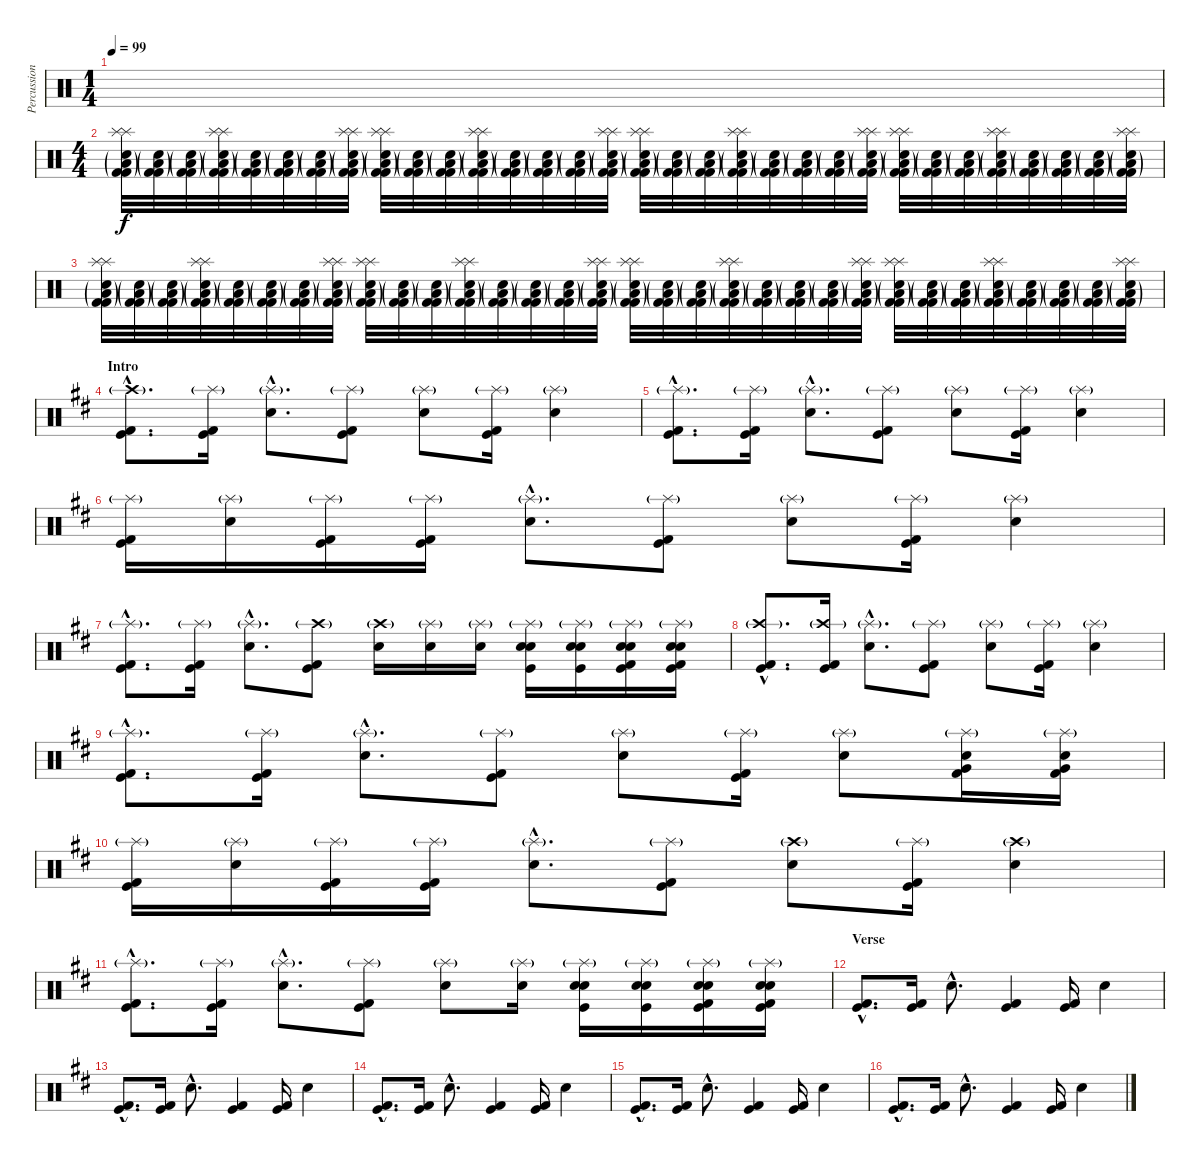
\track ("Percussion" "Percussion") {instrument percussion}
\staff {score}
\articulation defaults
\ts (1 4)
\tempo 99
\clef neutral
\ks c
|
\ts (4 4)
("Splash (hit)" "Splash (hit)" "Low Tom (hit)"{g} "Kick (hit) 2"{g} "Kick (hit) 2"{g} "Electric Snare (hit)"{g}).32{volume 10} ("Low Tom (hit)"{g} "Kick (hit) 2"{g} "Kick (hit) 2"{g} "Electric Snare (hit)"{g}).32 ("Low Tom (hit)"{g} "Kick (hit) 2"{g} "Kick (hit) 2"{g} "Electric Snare (hit)"{g}).32 ("Splash (hit)" "Splash (hit)" "Low Tom (hit)"{g} "Kick (hit) 2"{g} "Kick (hit) 2"{g} "Electric Snare (hit)"{g}).32 ("Low Tom (hit)"{g} "Kick (hit) 2"{g} "Kick (hit) 2"{g} "Electric Snare (hit)"{g}).32 ("Low Tom (hit)"{g} "Kick (hit) 2"{g} "Kick (hit) 2"{g} "Electric Snare (hit)"{g}).32 ("Low Tom (hit)"{g} "Kick (hit) 2"{g} "Kick (hit) 2"{g} "Electric Snare (hit)"{g}).32 ("Splash (hit)" "Splash (hit)" "Low Tom (hit)"{g} "Kick (hit) 2"{g} "Kick (hit) 2"{g} "Electric Snare (hit)"{g}).32 ("Splash (hit)" "Splash (hit)" "Low Tom (hit)"{g} "Kick (hit) 2"{g} "Kick (hit) 2"{g} "Electric Snare (hit)"{g}).32 ("Low Tom (hit)"{g} "Kick (hit) 2"{g} "Kick (hit) 2"{g} "Electric Snare (hit)"{g}).32 ("Low Tom (hit)"{g} "Kick (hit) 2"{g} "Kick (hit) 2"{g} "Electric Snare (hit)"{g}).32 ("Splash (hit)" "Splash (hit)" "Low Tom (hit)"{g} "Kick (hit) 2"{g} "Kick (hit) 2"{g} "Electric Snare (hit)"{g}).32 ("Low Tom (hit)"{g} "Kick (hit) 2"{g} "Kick (hit) 2"{g} "Electric Snare (hit)"{g}).32 ("Low Tom (hit)"{g} "Kick (hit) 2"{g} "Kick (hit) 2"{g} "Electric Snare (hit)"{g}).32 ("Low Tom (hit)"{g} "Kick (hit) 2"{g} "Kick (hit) 2"{g} "Electric Snare (hit)"{g}).32 ("Splash (hit)" "Splash (hit)" "Low Tom (hit)"{g} "Kick (hit) 2"{g} "Kick (hit) 2"{g} "Electric Snare (hit)"{g}).32 ("Splash (hit)" "Splash (hit)" "Low Tom (hit)"{g} "Kick (hit) 2"{g} "Kick (hit) 2"{g} "Electric Snare (hit)"{g}).32 ("Low Tom (hit)"{g} "Kick (hit) 2"{g} "Kick (hit) 2"{g} "Electric Snare (hit)"{g}).32 ("Low Tom (hit)"{g} "Kick (hit) 2"{g} "Kick (hit) 2"{g} "Electric Snare (hit)"{g}).32 ("Splash (hit)" "Splash (hit)" "Low Tom (hit)"{g} "Kick (hit) 2"{g} "Kick (hit) 2"{g} "Electric Snare (hit)"{g}).32 ("Low Tom (hit)"{g} "Kick (hit) 2"{g} "Kick (hit) 2"{g} "Electric Snare (hit)"{g}).32 ("Low Tom (hit)"{g} "Kick (hit) 2"{g} "Kick (hit) 2"{g} "Electric Snare (hit)"{g}).32 ("Low Tom (hit)"{g} "Kick (hit) 2"{g} "Kick (hit) 2"{g} "Electric Snare (hit)"{g}).32 ("Splash (hit)" "Splash (hit)" "Low Tom (hit)"{g} "Kick (hit) 2"{g} "Kick (hit) 2"{g} "Electric Snare (hit)"{g}).32 ("Splash (hit)" "Splash (hit)" "Low Tom (hit)"{g} "Kick (hit) 2"{g} "Kick (hit) 2"{g} "Electric Snare (hit)"{g}).32 ("Low Tom (hit)"{g} "Kick (hit) 2"{g} "Kick (hit) 2"{g} "Electric Snare (hit)"{g}).32 ("Low Tom (hit)"{g} "Kick (hit) 2"{g} "Kick (hit) 2"{g} "Electric Snare (hit)"{g}).32 ("Splash (hit)" "Splash (hit)" "Low Tom (hit)"{g} "Kick (hit) 2"{g} "Kick (hit) 2"{g} "Electric Snare (hit)"{g}).32 ("Low Tom (hit)"{g} "Kick (hit) 2"{g} "Kick (hit) 2"{g} "Electric Snare (hit)"{g}).32 ("Low Tom (hit)"{g} "Kick (hit) 2"{g} "Kick (hit) 2"{g} "Electric Snare (hit)"{g}).32 ("Low Tom (hit)"{g} "Kick (hit) 2"{g} "Kick (hit) 2"{g} "Electric Snare (hit)"{g}).32 ("Splash (hit)" "Splash (hit)" "Low Tom (hit)"{g} "Kick (hit) 2"{g} "Kick (hit) 2"{g} "Electric Snare (hit)"{g}).32 |
("Splash (hit)" "Splash (hit)" "Low Tom (hit)"{g} "Kick (hit) 2"{g} "Kick (hit) 2"{g} "Electric Snare (hit)"{g}).32 ("Low Tom (hit)"{g} "Kick (hit) 2"{g} "Kick (hit) 2"{g} "Electric Snare (hit)"{g}).32 ("Low Tom (hit)"{g} "Kick (hit) 2"{g} "Kick (hit) 2"{g} "Electric Snare (hit)"{g}).32 ("Splash (hit)" "Splash (hit)" "Low Tom (hit)"{g} "Kick (hit) 2"{g} "Kick (hit) 2"{g} "Electric Snare (hit)"{g}).32 ("Low Tom (hit)"{g} "Kick (hit) 2"{g} "Kick (hit) 2"{g} "Electric Snare (hit)"{g}).32 ("Low Tom (hit)"{g} "Kick (hit) 2"{g} "Kick (hit) 2"{g} "Electric Snare (hit)"{g}).32 ("Low Tom (hit)"{g} "Kick (hit) 2"{g} "Kick (hit) 2"{g} "Electric Snare (hit)"{g}).32 ("Splash (hit)" "Splash (hit)" "Low Tom (hit)"{g} "Kick (hit) 2"{g} "Kick (hit) 2"{g} "Electric Snare (hit)"{g}).32 ("Splash (hit)" "Splash (hit)" "Low Tom (hit)"{g} "Kick (hit) 2"{g} "Kick (hit) 2"{g} "Electric Snare (hit)"{g}).32 ("Low Tom (hit)"{g} "Kick (hit) 2"{g} "Kick (hit) 2"{g} "Electric Snare (hit)"{g}).32 ("Low Tom (hit)"{g} "Kick (hit) 2"{g} "Kick (hit) 2"{g} "Electric Snare (hit)"{g}).32 ("Splash (hit)" "Splash (hit)" "Low Tom (hit)"{g} "Kick (hit) 2"{g} "Kick (hit) 2"{g} "Electric Snare (hit)"{g}).32 ("Low Tom (hit)"{g} "Kick (hit) 2"{g} "Kick (hit) 2"{g} "Electric Snare (hit)"{g}).32 ("Low Tom (hit)"{g} "Kick (hit) 2"{g} "Kick (hit) 2"{g} "Electric Snare (hit)"{g}).32 ("Low Tom (hit)"{g} "Kick (hit) 2"{g} "Kick (hit) 2"{g} "Electric Snare (hit)"{g}).32 ("Splash (hit)" "Splash (hit)" "Low Tom (hit)"{g} "Kick (hit) 2"{g} "Kick (hit) 2"{g} "Electric Snare (hit)"{g}).32 ("Splash (hit)" "Splash (hit)" "Low Tom (hit)"{g} "Kick (hit) 2"{g} "Kick (hit) 2"{g} "Electric Snare (hit)"{g}).32 ("Low Tom (hit)"{g} "Kick (hit) 2"{g} "Kick (hit) 2"{g} "Electric Snare (hit)"{g}).32 ("Low Tom (hit)"{g} "Kick (hit) 2"{g} "Kick (hit) 2"{g} "Electric Snare (hit)"{g}).32 ("Splash (hit)" "Splash (hit)" "Low Tom (hit)"{g} "Kick (hit) 2"{g} "Kick (hit) 2"{g} "Electric Snare (hit)"{g}).32 ("Low Tom (hit)"{g} "Kick (hit) 2"{g} "Kick (hit) 2"{g} "Electric Snare (hit)"{g}).32 ("Low Tom (hit)"{g} "Kick (hit) 2"{g} "Kick (hit) 2"{g} "Electric Snare (hit)"{g}).32 ("Low Tom (hit)"{g} "Kick (hit) 2"{g} "Kick (hit) 2"{g} "Electric Snare (hit)"{g}).32 ("Splash (hit)" "Splash (hit)" "Low Tom (hit)"{g} "Kick (hit) 2"{g} "Kick (hit) 2"{g} "Electric Snare (hit)"{g}).32 ("Splash (hit)" "Splash (hit)" "Low Tom (hit)"{g} "Kick (hit) 2"{g} "Kick (hit) 2"{g} "Electric Snare (hit)"{g}).32 ("Low Tom (hit)"{g} "Kick (hit) 2"{g} "Kick (hit) 2"{g} "Electric Snare (hit)"{g}).32 ("Low Tom (hit)"{g} "Kick (hit) 2"{g} "Kick (hit) 2"{g} "Electric Snare (hit)"{g}).32 ("Splash (hit)" "Splash (hit)" "Low Tom (hit)"{g} "Kick (hit) 2"{g} "Kick (hit) 2"{g} "Electric Snare (hit)"{g}).32 ("Low Tom (hit)"{g} "Kick (hit) 2"{g} "Kick (hit) 2"{g} "Electric Snare (hit)"{g}).32 ("Low Tom (hit)"{g} "Kick (hit) 2"{g} "Kick (hit) 2"{g} "Electric Snare (hit)"{g}).32 ("Low Tom (hit)"{g} "Kick (hit) 2"{g} "Kick (hit) 2"{g} "Electric Snare (hit)"{g}).32 ("Splash (hit)" "Splash (hit)" "Low Tom (hit)"{g} "Kick (hit) 2"{g} "Kick (hit) 2"{g} "Electric Snare (hit)"{g}).32 |
\section ("" "Intro")
\ks d
("Crash high (hit)"{g hac} "Kick (hit)"{hac} "Kick (hit) 2"{hac}).8{d volume 16} ("Splash (hit)"{g} "Kick (hit)" "Kick (hit) 2").16 ("Splash (hit)"{g hac} "Electric Snare (hit)"{hac}).8{d} ("Splash (hit)"{g} "Kick (hit)" "Kick (hit) 2").8 ("Splash (hit)"{g} "Electric Snare (hit)").8 ("Splash (hit)"{g} "Kick (hit)" "Kick (hit) 2").16 ("Splash (hit)"{g} "Electric Snare (hit)").4 |
("Splash (hit)"{g hac} "Kick (hit)"{hac} "Kick (hit) 2"{hac}).8{d} ("Splash (hit)"{g} "Kick (hit)" "Kick (hit) 2").16 ("Splash (hit)"{g hac} "Electric Snare (hit)"{hac}).8{d} ("Splash (hit)"{g} "Kick (hit)" "Kick (hit) 2").8 ("Splash (hit)"{g} "Electric Snare (hit)").8 ("Splash (hit)"{g} "Kick (hit)" "Kick (hit) 2").16 ("Splash (hit)"{g} "Electric Snare (hit)").4 |
("Splash (hit)"{g} "Kick (hit)" "Kick (hit) 2").16 ("Splash (hit)"{g} "Electric Snare (hit)").16 ("Splash (hit)"{g} "Kick (hit)" "Kick (hit) 2").16 ("Splash (hit)"{g} "Kick (hit)" "Kick (hit) 2").16 ("Splash (hit)"{g hac} "Electric Snare (hit)"{hac}).8{d} ("Splash (hit)"{g} "Kick (hit)" "Kick (hit) 2").8 ("Splash (hit)"{g} "Electric Snare (hit)").8 ("Splash (hit)"{g} "Kick (hit)" "Kick (hit) 2").16 ("Splash (hit)"{g} "Electric Snare (hit)").4 |
("Splash (hit)"{g hac} "Kick (hit)"{hac} "Kick (hit) 2"{hac}).8{d} ("Splash (hit)"{g} "Kick (hit)" "Kick (hit) 2").16 ("Splash (hit)"{g hac} "Electric Snare (hit)"{hac}).8{d} ("Crash high (hit)"{g} "Kick (hit)" "Kick (hit) 2").8 ("Crash high (hit)"{g} "Electric Snare (hit)").16 ("Splash (hit)"{g} "Electric Snare (hit)").16 ("Splash (hit)"{g} "Electric Snare (hit)").16 ("Splash (hit)"{g} "Electric Snare (hit)" "Electric Snare (hit)" "Kick (hit)").16 ("Splash (hit)"{g} "Electric Snare (hit)" "Electric Snare (hit)" "Kick (hit)").16 ("Splash (hit)"{g} "Electric Snare (hit)" "Electric Snare (hit)" "Kick (hit) 2" "Kick (hit)").16 ("Splash (hit)"{g} "Electric Snare (hit)" "Electric Snare (hit)" "Kick (hit) 2" "Kick (hit)").16 |
("Crash high (hit)"{g hac} "Kick (hit)"{hac} "Kick (hit) 2"{hac}).8{d} ("Crash high (hit)"{g} "Kick (hit)" "Kick (hit) 2").16 ("Splash (hit)"{g hac} "Electric Snare (hit)"{hac}).8{d} ("Splash (hit)"{g} "Kick (hit)" "Kick (hit) 2").8 ("Splash (hit)"{g} "Electric Snare (hit)").8 ("Splash (hit)"{g} "Kick (hit)" "Kick (hit) 2").16 ("Splash (hit)"{g} "Electric Snare (hit)").4 |
("Splash (hit)"{g hac} "Kick (hit)"{hac} "Kick (hit) 2"{hac}).8{d} ("Splash (hit)"{g} "Kick (hit)" "Kick (hit) 2").16 ("Splash (hit)"{g hac} "Electric Snare (hit)"{hac}).8{d} ("Splash (hit)"{g} "Kick (hit)" "Kick (hit) 2").8 ("Splash (hit)"{g} "Electric Snare (hit)").8 ("Splash (hit)"{g} "Kick (hit)" "Kick (hit) 2").16 ("Splash (hit)"{g} "Electric Snare (hit)").8 ("Splash (hit)"{g} "Electric Snare (hit)" "Very Low Tom (hit)" "Kick (hit) 2").16 ("Splash (hit)"{g} "Electric Snare (hit)" "Very Low Tom (hit)" "Kick (hit) 2").16 |
("Splash (hit)"{g} "Kick (hit)" "Kick (hit) 2").16 ("Splash (hit)"{g} "Electric Snare (hit)").16 ("Splash (hit)"{g} "Kick (hit)" "Kick (hit) 2").16 ("Splash (hit)"{g} "Kick (hit)" "Kick (hit) 2").16 ("Splash (hit)"{g hac} "Electric Snare (hit)"{hac}).8{d} ("Splash (hit)"{g} "Kick (hit)" "Kick (hit) 2").8 ("Crash high (hit)"{g} "Electric Snare (hit)").8 ("Splash (hit)"{g} "Kick (hit)" "Kick (hit) 2").16 ("Crash high (hit)"{g} "Electric Snare (hit)").4 |
("Splash (hit)"{g hac} "Kick (hit)"{hac} "Kick (hit) 2"{hac}).8{d} ("Splash (hit)"{g} "Kick (hit)" "Kick (hit) 2").16 ("Splash (hit)"{g hac} "Electric Snare (hit)"{hac}).8{d} ("Splash (hit)"{g} "Kick (hit)" "Kick (hit) 2").8 ("Splash (hit)"{g} "Electric Snare (hit)").8 ("Splash (hit)"{g} "Electric Snare (hit)").16 ("Splash (hit)"{g} "Electric Snare (hit)" "Electric Snare (hit)" "Kick (hit)").16 ("Splash (hit)"{g} "Electric Snare (hit)" "Electric Snare (hit)" "Kick (hit)").16 ("Splash (hit)"{g} "Electric Snare (hit)" "Electric Snare (hit)" "Kick (hit) 2" "Kick (hit)").16 ("Splash (hit)"{g} "Electric Snare (hit)" "Electric Snare (hit)" "Kick (hit) 2" "Kick (hit)").16 |
\section ("" "Verse")
("Kick (hit)"{hac} "Kick (hit) 2"{hac}).8{d dy f} ("Kick (hit)" "Kick (hit) 2").16 "Electric Snare (hit)"{hac}.8{d} ("Kick (hit)" "Kick (hit) 2").4 ("Kick (hit)" "Kick (hit) 2").16 "Electric Snare (hit)".4 |
("Kick (hit)"{hac} "Kick (hit) 2"{hac}).8{d} ("Kick (hit)" "Kick (hit) 2").16 "Electric Snare (hit)"{hac}.8{d} ("Kick (hit)" "Kick (hit) 2").4 ("Kick (hit)" "Kick (hit) 2").16 "Electric Snare (hit)".4 |
("Kick (hit)"{hac} "Kick (hit) 2"{hac}).8{d} ("Kick (hit)" "Kick (hit) 2").16 "Electric Snare (hit)"{hac}.8{d} ("Kick (hit)" "Kick (hit) 2").4 ("Kick (hit)" "Kick (hit) 2").16 "Electric Snare (hit)".4 |
("Kick (hit)"{hac} "Kick (hit) 2"{hac}).8{d} ("Kick (hit)" "Kick (hit) 2").16 "Electric Snare (hit)"{hac}.8{d} ("Kick (hit)" "Kick (hit) 2").4 ("Kick (hit)" "Kick (hit) 2").16 "Electric Snare (hit)".4 |
("Kick (hit)"{hac} "Kick (hit) 2"{hac}).8{d} ("Kick (hit)" "Kick (hit) 2").16 "Electric Snare (hit)"{hac}.8{d} ("Kick (hit)" "Kick (hit) 2").4 ("Kick (hit)" "Kick (hit) 2").16 "Electric Snare (hit)".4
